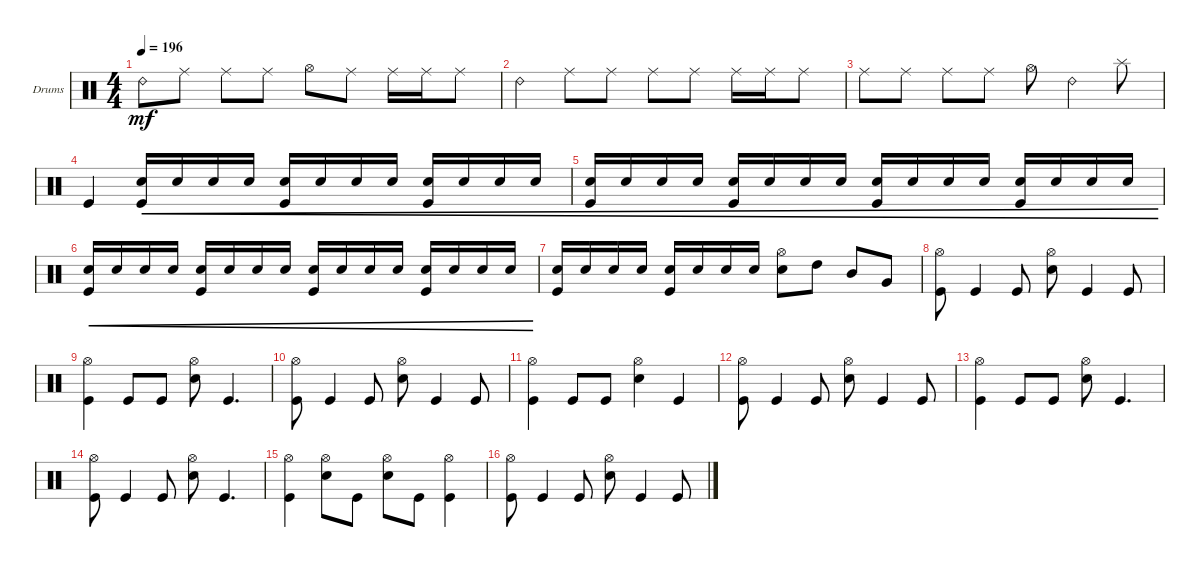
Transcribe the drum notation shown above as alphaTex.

\defaultSystemsLayout 4
\bracketExtendMode groupsimilarinstruments
\firstSystemTrackNameOrientation horizontal
\otherSystemsTrackNameOrientation horizontal
\track ("Drumkit" "Drums") {instrument percussion}
\staff {score}
\articulation defaults
\ts (4 4)
\tempo 196
\clef neutral
\scale
0.333333
\ks c "Ride (bell) 2".8{dy mf} "Ride (middle)".8 "Ride (middle)".8 "Ride (middle)".8 "Hi-Hat (open)".8 "Ride (middle)".8 "Ride (middle)".16 "Ride (middle)".16 "Ride (middle)".8
|
\scale
0.333333 "Ride (bell) 2".4 "Ride (middle)".8 "Ride (middle)".8 "Ride (middle)".8 "Ride (middle)".8 "Ride (middle)".16 "Ride (middle)".16 "Ride (middle)".8 |
\scale
0.333333 "Ride (middle)".8 "Ride (middle)".8 "Ride (middle)".8 "Ride (middle)".8 "Hi-Hat (open)".8 "Ride (bell) 2".4 "Splash (hit)".8 |
\scale
0.333333 "Kick (hit)".4 ("Snare (hit) 2" "Kick (hit)").16{cre} "Snare (hit) 2".16{cre} "Snare (hit) 2".16{cre} "Snare (hit) 2".16{cre} ("Snare (hit) 2" "Kick (hit)").16{cre} "Snare (hit) 2".16{cre} "Snare (hit) 2".16{cre} "Snare (hit) 2".16{cre} ("Snare (hit) 2" "Kick (hit)").16{cre} "Snare (hit) 2".16{cre} "Snare (hit) 2".16{cre} "Snare (hit) 2".16{cre} |
\scale
0.333333 ("Snare (hit) 2" "Kick (hit)").16{cre} "Snare (hit) 2".16{cre} "Snare (hit) 2".16{cre} "Snare (hit) 2".16{cre} ("Snare (hit) 2" "Kick (hit)").16{cre} "Snare (hit) 2".16{cre} "Snare (hit) 2".16{cre} "Snare (hit) 2".16{cre} ("Snare (hit) 2" "Kick (hit)").16{cre} "Snare (hit) 2".16{cre} "Snare (hit) 2".16{cre} "Snare (hit) 2".16{cre} ("Snare (hit) 2" "Kick (hit)").16{cre} "Snare (hit) 2".16{cre} "Snare (hit) 2".16{cre} "Snare (hit) 2".16{cre} |
\scale
0.333333 ("Snare (hit) 2" "Kick (hit)").16{cre} "Snare (hit) 2".16{cre} "Snare (hit) 2".16{cre} "Snare (hit) 2".16{cre} ("Snare (hit) 2" "Kick (hit)").16{cre} "Snare (hit) 2".16{cre} "Snare (hit) 2".16{cre} "Snare (hit) 2".16{cre} ("Snare (hit) 2" "Kick (hit)").16{cre} "Snare (hit) 2".16{cre} "Snare (hit) 2".16{cre} "Snare (hit) 2".16{cre} ("Snare (hit) 2" "Kick (hit)").16{cre} "Snare (hit) 2".16{cre} "Snare (hit) 2".16{cre} "Snare (hit) 2".16{cre} |
\scale
0.333333 ("Snare (hit) 2" "Kick (hit)").16 "Snare (hit) 2".16 "Snare (hit) 2".16 "Snare (hit) 2".16 ("Snare (hit) 2" "Kick (hit)").16 "Snare (hit) 2".16 "Snare (hit) 2".16 "Snare (hit) 2".16 ("Snare (hit) 2" "Hi-Hat (open)").8 "High Tom (hit)".8 "Mid Tom (hit)".8 "Very Low Tom (hit)".8 |
\scale
0.333333 ("Kick (hit)" "Hi-Hat (open)").8 "Kick (hit)".4 "Kick (hit)".8 ("Snare (hit) 2" "Hi-Hat (open)").8 "Kick (hit)".4 "Kick (hit)".8 |
\scale
0.333333 ("Kick (hit)" "Hi-Hat (open)").4 "Kick (hit)".8 "Kick (hit)".8 ("Snare (hit) 2" "Hi-Hat (open)").8 "Kick (hit)".4{d} |
\scale
0.333333 ("Kick (hit)" "Hi-Hat (open)").8 "Kick (hit)".4 "Kick (hit)".8 ("Snare (hit) 2" "Hi-Hat (open)").8 "Kick (hit)".4 "Kick (hit)".8 |
\scale
0.333333 ("Kick (hit)" "Hi-Hat (open)").4 "Kick (hit)".8 "Kick (hit)".8 ("Snare (hit) 2" "Hi-Hat (open)").4 "Kick (hit)".4 |
\scale
0.333333 ("Kick (hit)" "Hi-Hat (open)").8 "Kick (hit)".4 "Kick (hit)".8 ("Snare (hit) 2" "Hi-Hat (open)").8 "Kick (hit)".4 "Kick (hit)".8 |
\scale
0.333333 ("Kick (hit)" "Hi-Hat (open)").4 "Kick (hit)".8 "Kick (hit)".8 ("Snare (hit) 2" "Hi-Hat (open)").8 "Kick (hit)".4{d} |
\scale
0.333333 ("Kick (hit)" "Hi-Hat (open)").8 "Kick (hit)".4 "Kick (hit)".8 ("Snare (hit) 2" "Hi-Hat (open)").8 "Kick (hit)".4{d} |
\scale
0.333333 ("Kick (hit)" "Hi-Hat (open)").4 ("Snare (hit) 2" "Hi-Hat (open)").8 "Kick (hit)".8 ("Snare (hit) 2" "Hi-Hat (open)").8 "Kick (hit)".8 ("Hi-Hat (open)" "Kick (hit)").4 |
\scale
0.333333 ("Kick (hit)" "Hi-Hat (open)").8 "Kick (hit)".4 "Kick (hit)".8 ("Snare (hit) 2" "Hi-Hat (open)").8 "Kick (hit)".4 "Kick (hit)".8
